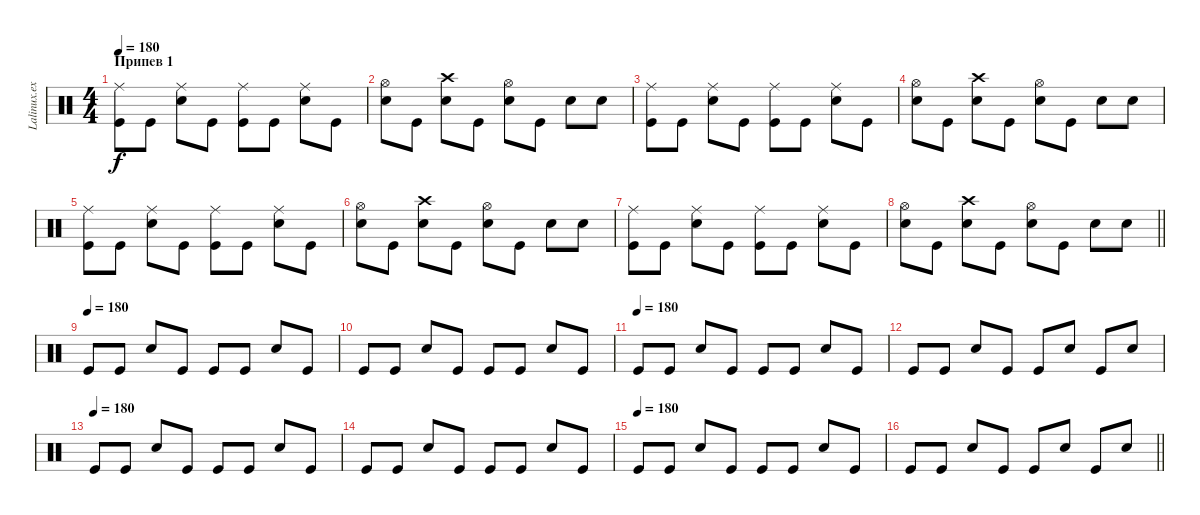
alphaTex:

\track ("Lalinux.exe" "Lalinux.ex") {instrument percussion}
\staff {score}
\articulation defaults
\ts (4 4)
\section ("" "Припев 1")
\tempo 180
\clef neutral
\ks c
("Ride (middle)" "Kick (hit)").8{dy f} "Kick (hit)".8 ("Ride (middle)" "Electric Snare (hit)").8 "Kick (hit)".8 ("Ride (middle)" "Kick (hit)").8 "Kick (hit)".8 ("Ride (middle)" "Electric Snare (hit)").8 "Kick (hit)".8 |
("Hi-Hat (open)" "Electric Snare (hit)").8 "Kick (hit)".8 ("Crash high (hit)" "Electric Snare (hit)").8 "Kick (hit)".8 ("Hi-Hat (open)" "Electric Snare (hit)").8 "Kick (hit)".8 "Electric Snare (hit)".8 "Electric Snare (hit)".8 |
("Ride (middle)" "Kick (hit)").8 "Kick (hit)".8 ("Ride (middle)" "Electric Snare (hit)").8 "Kick (hit)".8 ("Ride (middle)" "Kick (hit)").8 "Kick (hit)".8 ("Ride (middle)" "Electric Snare (hit)").8 "Kick (hit)".8 |
("Hi-Hat (open)" "Electric Snare (hit)").8 "Kick (hit)".8 ("Crash high (hit)" "Electric Snare (hit)").8 "Kick (hit)".8 ("Hi-Hat (open)" "Electric Snare (hit)").8 "Kick (hit)".8 "Electric Snare (hit)".8 "Electric Snare (hit)".8 |
("Ride (middle)" "Kick (hit)").8 "Kick (hit)".8 ("Ride (middle)" "Electric Snare (hit)").8 "Kick (hit)".8 ("Ride (middle)" "Kick (hit)").8 "Kick (hit)".8 ("Ride (middle)" "Electric Snare (hit)").8 "Kick (hit)".8 |
("Hi-Hat (open)" "Electric Snare (hit)").8 "Kick (hit)".8 ("Crash high (hit)" "Electric Snare (hit)").8 "Kick (hit)".8 ("Hi-Hat (open)" "Electric Snare (hit)").8 "Kick (hit)".8 "Electric Snare (hit)".8 "Electric Snare (hit)".8 |
("Ride (middle)" "Kick (hit)").8 "Kick (hit)".8 ("Ride (middle)" "Electric Snare (hit)").8 "Kick (hit)".8 ("Ride (middle)" "Kick (hit)").8 "Kick (hit)".8 ("Ride (middle)" "Electric Snare (hit)").8 "Kick (hit)".8 |
\barLineRight lightlight
("Hi-Hat (open)" "Electric Snare (hit)").8 "Kick (hit)".8 ("Crash high (hit)" "Electric Snare (hit)").8 "Kick (hit)".8 ("Hi-Hat (open)" "Electric Snare (hit)").8 "Kick (hit)".8 "Electric Snare (hit)".8 "Electric Snare (hit)".8 |
\section ("" "")
\tempo (180)
"Kick (hit)".8 "Kick (hit)".8 "Electric Snare (hit)".8 "Kick (hit)".8 "Kick (hit)".8 "Kick (hit)".8 "Electric Snare (hit)".8 "Kick (hit)".8 |
"Kick (hit)".8 "Kick (hit)".8 "Electric Snare (hit)".8 "Kick (hit)".8 "Kick (hit)".8 "Kick (hit)".8 "Electric Snare (hit)".8 "Kick (hit)".8 |
\tempo (180)
"Kick (hit)".8 "Kick (hit)".8 "Electric Snare (hit)".8 "Kick (hit)".8 "Kick (hit)".8 "Kick (hit)".8 "Electric Snare (hit)".8 "Kick (hit)".8 |
"Kick (hit)".8 "Kick (hit)".8 "Electric Snare (hit)".8 "Kick (hit)".8 "Kick (hit)".8 "Electric Snare (hit)".8 "Kick (hit)".8 "Electric Snare (hit)".8 |
\tempo (180)
"Kick (hit)".8 "Kick (hit)".8 "Electric Snare (hit)".8 "Kick (hit)".8 "Kick (hit)".8 "Kick (hit)".8 "Electric Snare (hit)".8 "Kick (hit)".8 |
"Kick (hit)".8 "Kick (hit)".8 "Electric Snare (hit)".8 "Kick (hit)".8 "Kick (hit)".8 "Kick (hit)".8 "Electric Snare (hit)".8 "Kick (hit)".8 |
\tempo (180)
"Kick (hit)".8 "Kick (hit)".8 "Electric Snare (hit)".8 "Kick (hit)".8 "Kick (hit)".8 "Kick (hit)".8 "Electric Snare (hit)".8 "Kick (hit)".8 |
\barLineRight lightlight "Kick (hit)".8 "Kick (hit)".8 "Electric Snare (hit)".8 "Kick (hit)".8 "Kick (hit)".8 "Electric Snare (hit)".8 "Kick (hit)".8 "Electric Snare (hit)".8
